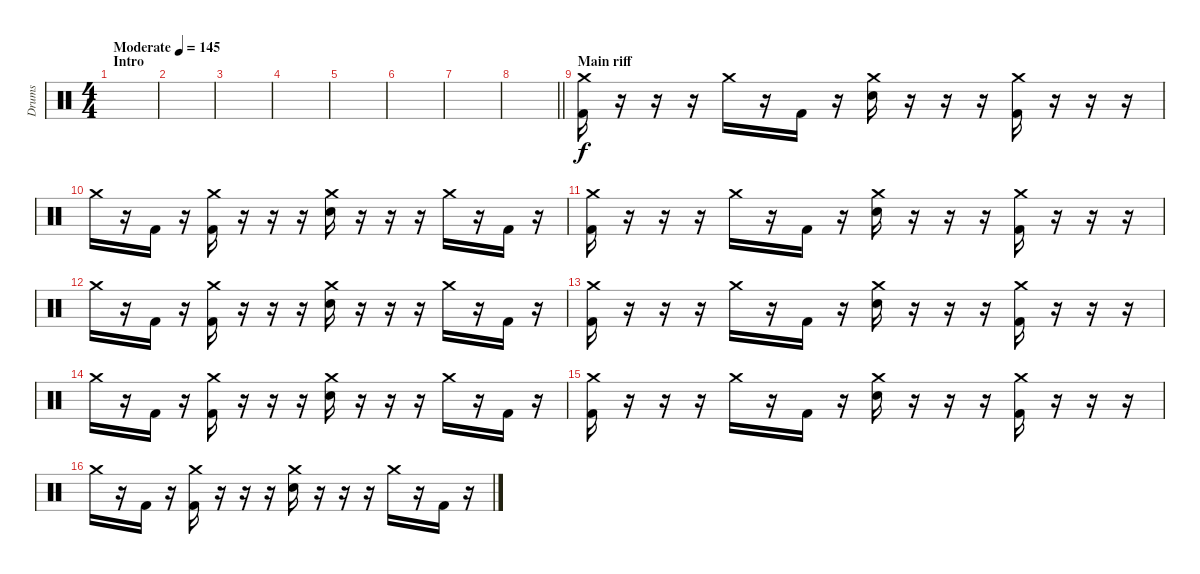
\track ("Drums" "Drums") {instrument percussion}
\staff {score}
\articulation defaults
\ts (4 4)
\section ("" "Intro")
\tempo (145 "Moderate")
\clef neutral
\ks c
|
|
|
|
|
|
|
\barLineRight lightlight
|
\section ("" "Main riff")
("Crash medium (hit)" "Kick (hit) 2").16 r.16 r.16 r.16 "Crash medium (hit)".16 r.16 "Kick (hit) 2".16 r.16 ("Crash medium (hit)" "Electric Snare (hit)").16 r.16 r.16 r.16 ("Crash medium (hit)" "Kick (hit) 2").16 r.16 r.16 r.16 |
"Crash medium (hit)".16 r.16 "Kick (hit) 2".16 r.16 ("Crash medium (hit)" "Kick (hit) 2").16 r.16 r.16 r.16 ("Crash medium (hit)" "Electric Snare (hit)").16 r.16 r.16 r.16 "Crash medium (hit)".16 r.16 "Kick (hit) 2".16 r.16 |
("Crash medium (hit)" "Kick (hit) 2").16 r.16 r.16 r.16 "Crash medium (hit)".16 r.16 "Kick (hit) 2".16 r.16 ("Crash medium (hit)" "Electric Snare (hit)").16 r.16 r.16 r.16 ("Crash medium (hit)" "Kick (hit) 2").16 r.16 r.16 r.16 |
"Crash medium (hit)".16 r.16 "Kick (hit) 2".16 r.16 ("Crash medium (hit)" "Kick (hit) 2").16 r.16 r.16 r.16 ("Crash medium (hit)" "Electric Snare (hit)").16 r.16 r.16 r.16 "Crash medium (hit)".16 r.16 "Kick (hit) 2".16 r.16 |
("Crash medium (hit)" "Kick (hit) 2").16 r.16 r.16 r.16 "Crash medium (hit)".16 r.16 "Kick (hit) 2".16 r.16 ("Crash medium (hit)" "Electric Snare (hit)").16 r.16 r.16 r.16 ("Crash medium (hit)" "Kick (hit) 2").16 r.16 r.16 r.16 |
"Crash medium (hit)".16 r.16 "Kick (hit) 2".16 r.16 ("Crash medium (hit)" "Kick (hit) 2").16 r.16 r.16 r.16 ("Crash medium (hit)" "Electric Snare (hit)").16 r.16 r.16 r.16 "Crash medium (hit)".16 r.16 "Kick (hit) 2".16 r.16 |
("Crash medium (hit)" "Kick (hit) 2").16 r.16 r.16 r.16 "Crash medium (hit)".16 r.16 "Kick (hit) 2".16 r.16 ("Crash medium (hit)" "Electric Snare (hit)").16 r.16 r.16 r.16 ("Crash medium (hit)" "Kick (hit) 2").16 r.16 r.16 r.16 |
"Crash medium (hit)".16 r.16 "Kick (hit) 2".16 r.16 ("Crash medium (hit)" "Kick (hit) 2").16 r.16 r.16 r.16 ("Crash medium (hit)" "Electric Snare (hit)").16 r.16 r.16 r.16 "Crash medium (hit)".16 r.16 "Kick (hit) 2".16 r.16
